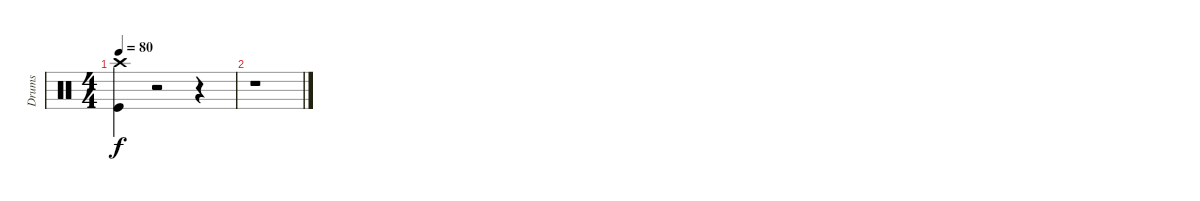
\track ("Drums" "Drums") {instrument percussion}
\staff {score}
\articulation defaults
\ts (4 4)
\tempo 80
\clef neutral
\ks c
("Crash high (hit)" "Kick (hit)").4{dy f} r.2 r.4 |
r.1
